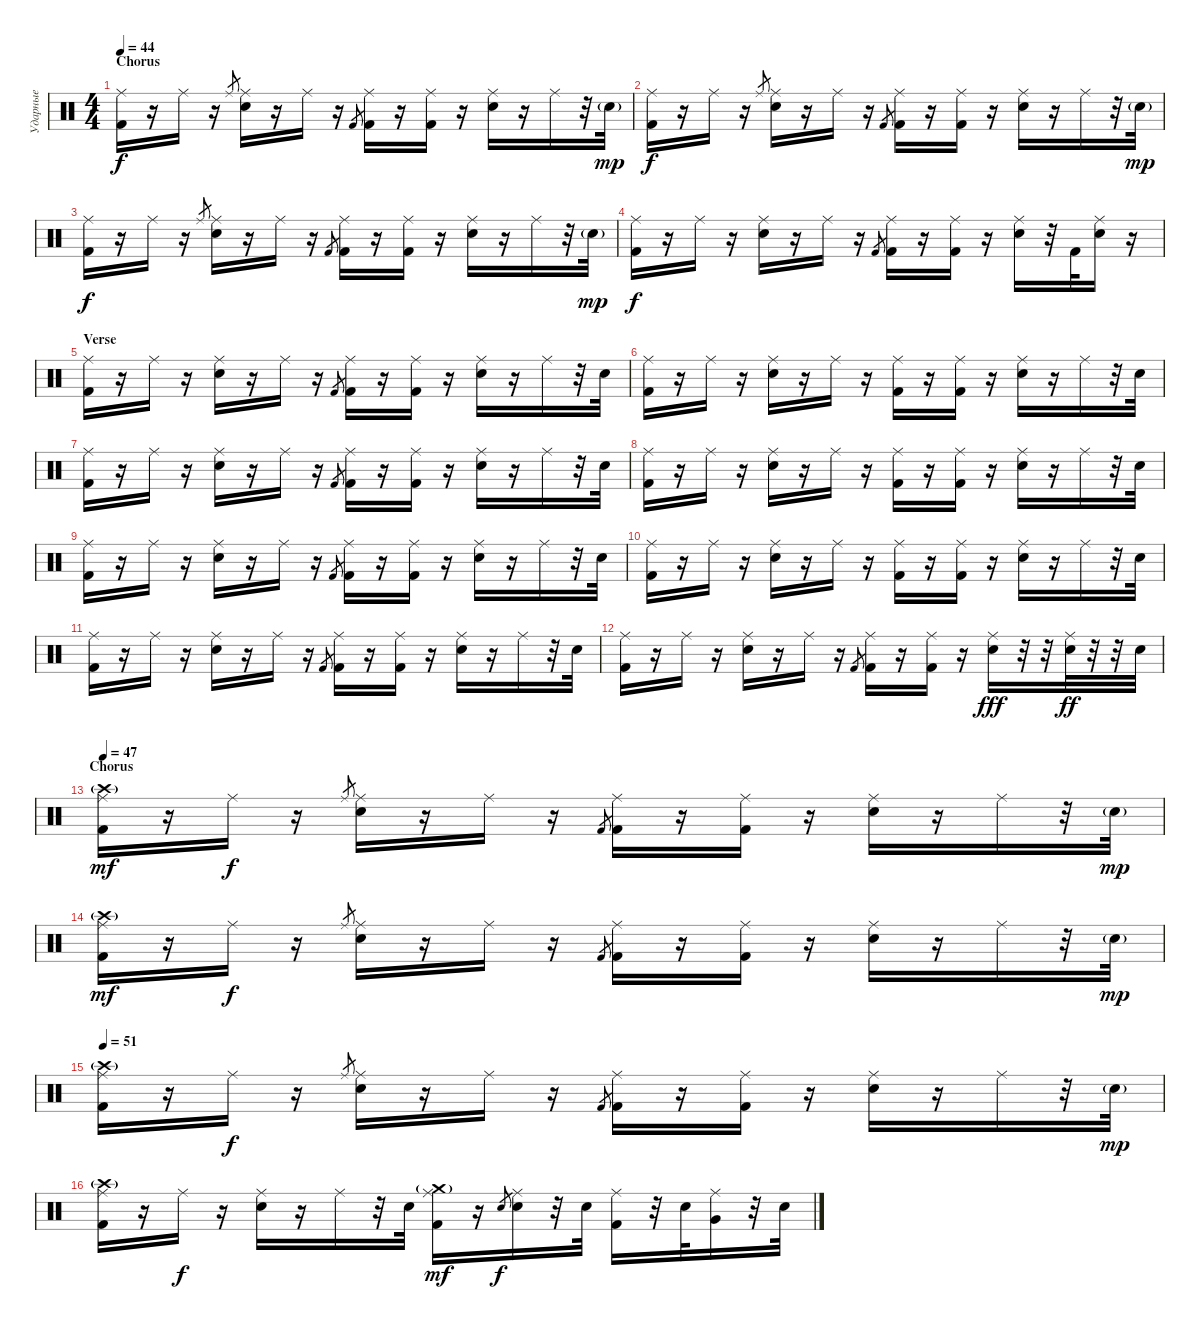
\track ("Ударные" "Ударные") {instrument percussion}
\staff {score}
\articulation defaults
\ts (4 4)
\section ("" "Chorus")
\tempo 44
\clef neutral
\ks c
("Ride (middle)" "Kick (hit) 2").16{dy f} r.16 "Ride (middle)".16 r.16 "Ride (middle)".8{gr} ("Ride (middle)" "Electric Snare (hit)").16 r.16 "Ride (middle)".16 r.16 "Kick (hit) 2".8{gr} ("Ride (middle)" "Kick (hit) 2").16 r.16 ("Ride (middle)" "Kick (hit) 2").16 r.16 ("Ride (middle)" "Electric Snare (hit)").16 r.16 "Ride (middle)".16 r.32 "Electric Snare (hit)"{g}.32{dy mp} |
("Ride (middle)" "Kick (hit) 2").16{dy f} r.16 "Ride (middle)".16 r.16 "Ride (middle)".8{gr} ("Ride (middle)" "Electric Snare (hit)").16 r.16 "Ride (middle)".16 r.16 "Kick (hit) 2".8{gr} ("Ride (middle)" "Kick (hit) 2").16 r.16 ("Ride (middle)" "Kick (hit) 2").16 r.16 ("Ride (middle)" "Electric Snare (hit)").16 r.16 "Ride (middle)".16 r.32 "Electric Snare (hit)"{g}.32{dy mp} |
("Ride (middle)" "Kick (hit) 2").16{dy f} r.16 "Ride (middle)".16 r.16 "Ride (middle)".8{gr} ("Ride (middle)" "Electric Snare (hit)").16 r.16 "Ride (middle)".16 r.16 "Kick (hit) 2".8{gr} ("Ride (middle)" "Kick (hit) 2").16 r.16 ("Ride (middle)" "Kick (hit) 2").16 r.16 ("Ride (middle)" "Electric Snare (hit)").16 r.16 "Ride (middle)".16 r.32 "Electric Snare (hit)"{g}.32{dy mp} |
("Ride (middle)" "Kick (hit) 2").16{dy f} r.16 "Ride (middle)".16 r.16 ("Ride (middle)" "Electric Snare (hit)").16 r.16 "Ride (middle)".16 r.16 "Kick (hit) 2".8{gr} ("Ride (middle)" "Kick (hit) 2").16 r.16 ("Ride (middle)" "Kick (hit) 2").16 r.16 ("Ride (middle)" "Electric Snare (hit)").16 r.32 "Kick (hit) 2".32 ("Ride (middle)" "Electric Snare (hit)").16 r.16 |
\section ("" "Verse")
("Ride (middle)" "Kick (hit) 2").16 r.16 "Ride (middle)".16 r.16 ("Ride (middle)" "Electric Snare (hit)").16 r.16 "Ride (middle)".16 r.16 "Kick (hit) 2".8{gr} ("Ride (middle)" "Kick (hit) 2").16 r.16 ("Ride (middle)" "Kick (hit) 2").16 r.16 ("Ride (middle)" "Electric Snare (hit)").16 r.16 "Ride (middle)".16 r.32 "Electric Snare (hit)".32 |
("Ride (middle)" "Kick (hit) 2").16 r.16 "Ride (middle)".16 r.16 ("Ride (middle)" "Electric Snare (hit)").16 r.16 "Ride (middle)".16 r.16 ("Ride (middle)" "Kick (hit) 2").16 r.16 ("Ride (middle)" "Kick (hit) 2").16 r.16 ("Ride (middle)" "Electric Snare (hit)").16 r.16 "Ride (middle)".16 r.32 "Electric Snare (hit)".32 |
("Ride (middle)" "Kick (hit) 2").16 r.16 "Ride (middle)".16 r.16 ("Ride (middle)" "Electric Snare (hit)").16 r.16 "Ride (middle)".16 r.16 "Kick (hit) 2".8{gr} ("Ride (middle)" "Kick (hit) 2").16 r.16 ("Ride (middle)" "Kick (hit) 2").16 r.16 ("Ride (middle)" "Electric Snare (hit)").16 r.16 "Ride (middle)".16 r.32 "Electric Snare (hit)".32 |
("Ride (middle)" "Kick (hit) 2").16 r.16 "Ride (middle)".16 r.16 ("Ride (middle)" "Electric Snare (hit)").16 r.16 "Ride (middle)".16 r.16 ("Ride (middle)" "Kick (hit) 2").16 r.16 ("Ride (middle)" "Kick (hit) 2").16 r.16 ("Ride (middle)" "Electric Snare (hit)").16 r.16 "Ride (middle)".16 r.32 "Electric Snare (hit)".32 |
("Ride (middle)" "Kick (hit) 2").16 r.16 "Ride (middle)".16 r.16 ("Ride (middle)" "Electric Snare (hit)").16 r.16 "Ride (middle)".16 r.16 "Kick (hit) 2".8{gr} ("Ride (middle)" "Kick (hit) 2").16 r.16 ("Ride (middle)" "Kick (hit) 2").16 r.16 ("Ride (middle)" "Electric Snare (hit)").16 r.16 "Ride (middle)".16 r.32 "Electric Snare (hit)".32 |
("Ride (middle)" "Kick (hit) 2").16 r.16 "Ride (middle)".16 r.16 ("Ride (middle)" "Electric Snare (hit)").16 r.16 "Ride (middle)".16 r.16 ("Ride (middle)" "Kick (hit) 2").16 r.16 ("Ride (middle)" "Kick (hit) 2").16 r.16 ("Ride (middle)" "Electric Snare (hit)").16 r.16 "Ride (middle)".16 r.32 "Electric Snare (hit)".32 |
("Ride (middle)" "Kick (hit) 2").16 r.16 "Ride (middle)".16 r.16 ("Ride (middle)" "Electric Snare (hit)").16 r.16 "Ride (middle)".16 r.16 "Kick (hit) 2".8{gr} ("Ride (middle)" "Kick (hit) 2").16 r.16 ("Ride (middle)" "Kick (hit) 2").16 r.16 ("Ride (middle)" "Electric Snare (hit)").16 r.16 "Ride (middle)".16 r.32 "Electric Snare (hit)".32 |
("Ride (middle)" "Kick (hit) 2").16 r.16 "Ride (middle)".16 r.16 ("Ride (middle)" "Electric Snare (hit)").16 r.16 "Ride (middle)".16 r.16 "Kick (hit) 2".8{gr} ("Ride (middle)" "Kick (hit) 2").16 r.16 ("Ride (middle)" "Kick (hit) 2").16 r.16 ("Ride (middle)" "Electric Snare (hit)").16{dy fff} r.32 r.32 ("Ride (middle)" "Electric Snare (hit)").32{dy ff} r.32 r.32 "Electric Snare (hit)".32 |
\section ("" "Chorus")
\tempo 47
("Crash high (hit)"{g} "Ride (middle)" "Kick (hit) 2").16{dy mf} r.16 "Ride (middle)".16{dy f} r.16 "Ride (middle)".8{gr} ("Ride (middle)" "Electric Snare (hit)").16 r.16 "Ride (middle)".16 r.16 "Kick (hit) 2".8{gr} ("Ride (middle)" "Kick (hit) 2").16 r.16 ("Ride (middle)" "Kick (hit) 2").16 r.16 ("Ride (middle)" "Electric Snare (hit)").16 r.16 "Ride (middle)".16 r.32 "Electric Snare (hit)"{g}.32{dy mp} |
("Crash high (hit)"{g} "Ride (middle)" "Kick (hit) 2").16{dy mf} r.16 "Ride (middle)".16{dy f} r.16 "Ride (middle)".8{gr} ("Ride (middle)" "Electric Snare (hit)").16 r.16 "Ride (middle)".16 r.16 "Kick (hit) 2".8{gr} ("Ride (middle)" "Kick (hit) 2").16 r.16 ("Ride (middle)" "Kick (hit) 2").16 r.16 ("Ride (middle)" "Electric Snare (hit)").16 r.16 "Ride (middle)".16 r.32 "Electric Snare (hit)"{g}.32{dy mp} |
\tempo 51
("Crash high (hit)"{g} "Ride (middle)" "Kick (hit) 2").16 r.16 "Ride (middle)".16{dy f} r.16 "Ride (middle)".8{gr} ("Ride (middle)" "Electric Snare (hit)").16 r.16 "Ride (middle)".16 r.16 "Kick (hit) 2".8{gr} ("Ride (middle)" "Kick (hit) 2").16 r.16 ("Ride (middle)" "Kick (hit) 2").16 r.16 ("Ride (middle)" "Electric Snare (hit)").16 r.16 "Ride (middle)".16 r.32 "Electric Snare (hit)"{g}.32{dy mp} |
("Crash high (hit)"{g} "Ride (middle)" "Kick (hit) 2").16 r.16 "Ride (middle)".16{dy f} r.16 ("Ride (middle)" "Electric Snare (hit)").16 r.16 "Ride (middle)".16 r.32 "Electric Snare (hit)".32 ("Crash medium (hit)"{g} "Ride (middle)" "Kick (hit) 2").16{dy mf} r.16 "Electric Snare (hit)".8{gr dy f} ("Ride (middle)" "Electric Snare (hit)").16 r.32 "Electric Snare (hit)".32 ("Ride (middle)" "Kick (hit) 2").16 r.32 "Electric Snare (hit)".32 ("Ride (middle)" "Very Low Tom (hit)").16 r.32 "Electric Snare (hit)".32
